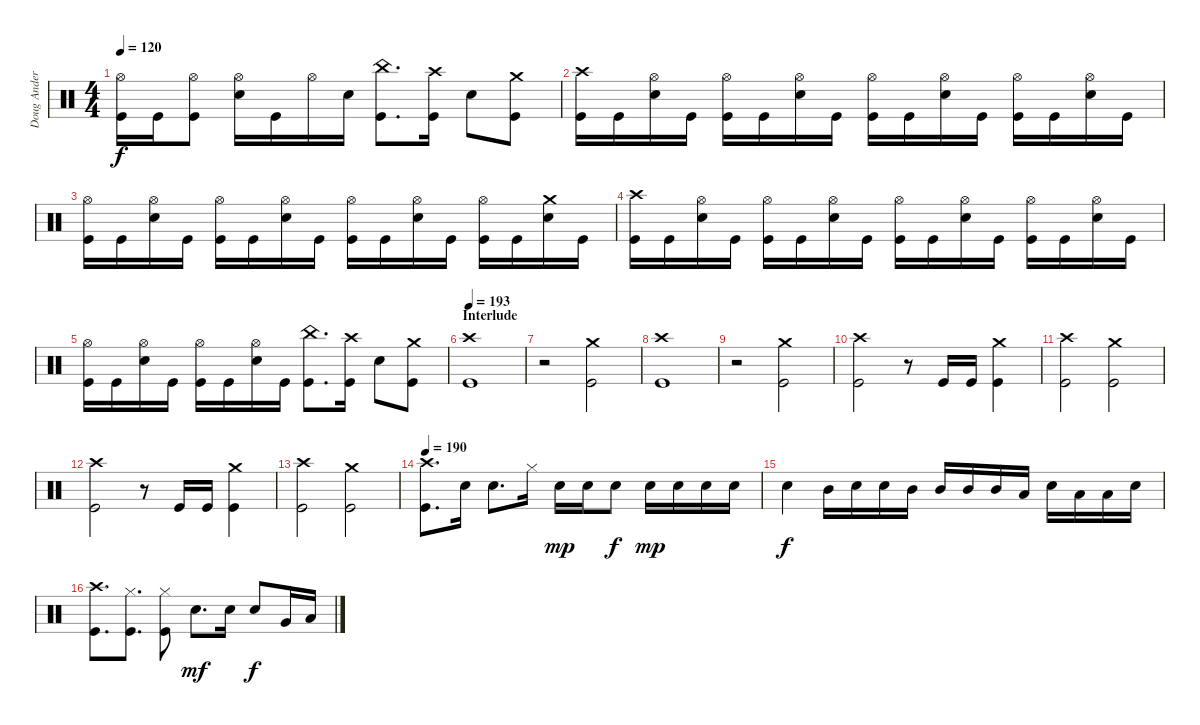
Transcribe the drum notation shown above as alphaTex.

\track ("Doug Anderson" "Doug Ander") {instrument percussion}
\staff {score}
\articulation defaults
\ts (4 4)
\tempo 120
\clef neutral
\ks c
("Kick (hit)" "Hi-Hat (open)").16{dy f} "Kick (hit)".16 ("Kick (hit)" "Hi-Hat (open)").8 ("Snare (hit) 2" "Hi-Hat (open)").16 "Kick (hit)".16 "Hi-Hat (open)".16 "Snare (hit) 2".16 ("Kick (hit)" "China (hit)").8{d} ("Kick (hit)" "Crash high (hit)").16 "Snare (hit) 2".8 ("Kick (hit)" "Crash medium (hit)").8 |
("Kick (hit)" "Crash high (hit)").16 "Kick (hit)".16 ("Snare (hit) 2" "Hi-Hat (open)").16 "Kick (hit)".16 ("Kick (hit)" "Hi-Hat (open)").16 "Kick (hit)".16 ("Snare (hit) 2" "Hi-Hat (open)").16 "Kick (hit)".16 ("Kick (hit)" "Hi-Hat (open)").16 "Kick (hit)".16 ("Snare (hit) 2" "Hi-Hat (open)").16 "Kick (hit)".16 ("Kick (hit)" "Hi-Hat (open)").16 "Kick (hit)".16 ("Snare (hit) 2" "Hi-Hat (open)").16 "Kick (hit)".16 |
("Kick (hit)" "Hi-Hat (open)").16 "Kick (hit)".16 ("Snare (hit) 2" "Hi-Hat (open)").16 "Kick (hit)".16 ("Kick (hit)" "Hi-Hat (open)").16 "Kick (hit)".16 ("Snare (hit) 2" "Hi-Hat (open)").16 "Kick (hit)".16 ("Kick (hit)" "Hi-Hat (open)").16 "Kick (hit)".16 ("Snare (hit) 2" "Hi-Hat (open)").16 "Kick (hit)".16 ("Kick (hit)" "Hi-Hat (open)").16 "Kick (hit)".16 ("Snare (hit) 2" "Crash medium (hit)").16 "Kick (hit)".16 |
("Kick (hit)" "Crash high (hit)").16 "Kick (hit)".16 ("Snare (hit) 2" "Hi-Hat (open)").16 "Kick (hit)".16 ("Kick (hit)" "Hi-Hat (open)").16 "Kick (hit)".16 ("Snare (hit) 2" "Hi-Hat (open)").16 "Kick (hit)".16 ("Kick (hit)" "Hi-Hat (open)").16 "Kick (hit)".16 ("Snare (hit) 2" "Hi-Hat (open)").16 "Kick (hit)".16 ("Kick (hit)" "Hi-Hat (open)").16 "Kick (hit)".16 ("Snare (hit) 2" "Hi-Hat (open)").16 "Kick (hit)".16 |
("Kick (hit)" "Hi-Hat (open)").16 "Kick (hit)".16 ("Snare (hit) 2" "Hi-Hat (open)").16 "Kick (hit)".16 ("Kick (hit)" "Hi-Hat (open)").16 "Kick (hit)".16 ("Snare (hit) 2" "Hi-Hat (open)").16 "Kick (hit)".16 ("Kick (hit)" "China (hit)").8{d} ("Kick (hit)" "Crash high (hit)").16 "Snare (hit) 2".8 ("Kick (hit)" "Crash medium (hit)").8 |
\section ("" "Interlude")
\tempo 193
("Kick (hit)" "Crash high (hit)").1 |
r.2 ("Kick (hit)" "Crash medium (hit)").2 |
("Kick (hit)" "Crash high (hit)").1 |
r.2 ("Kick (hit)" "Crash medium (hit)").2 |
("Kick (hit)" "Crash high (hit)").2 r.8 "Kick (hit)".16 "Kick (hit)".16 ("Kick (hit)" "Crash medium (hit)").4 |
("Kick (hit)" "Crash high (hit)").2 ("Kick (hit)" "Crash medium (hit)").2 |
("Crash high (hit)" "Kick (hit)").2 r.8 "Kick (hit)".16 "Kick (hit)".16 ("Kick (hit)" "Crash medium (hit)").4 |
("Kick (hit)" "Crash high (hit)").2 ("Kick (hit)" "Crash medium (hit)").2 |
\tempo 190
("Kick (hit)" "Crash high (hit)").8{d} "Snare (hit) 2".16 "Snare (hit) 2".8{d} "Hi-Hat (closed)".16 "Snare (hit) 2".16{dy mp} "Snare (hit) 2".16 "Snare (hit) 2".8{dy f} "Snare (hit) 2".16{dy mp} "Snare (hit) 2".16 "Snare (hit) 2".16 "Snare (hit) 2".16 |
"Snare (hit) 2".4{dy f} "Mid Tom (hit)".16 "Snare (hit) 2".16 "Snare (hit) 2".16 "Mid Tom (hit)".16 "Mid Tom (hit)".16 "Mid Tom (hit)".16 "Mid Tom (hit)".16 "Low Tom (hit)".16 "Snare (hit) 2".16 "Low Tom (hit)".16 "Low Tom (hit)".16 "Snare (hit) 2".16 |
("Kick (hit)" "Crash high (hit)").8{d} ("Kick (hit)" "Hi-Hat (closed)").8{d} ("Kick (hit)" "Hi-Hat (closed)").8 "Snare (hit) 2".8{d dy mf} "Snare (hit) 2".16 "Snare (hit) 2".8{dy f} "Very Low Tom (hit)".16 "Low Tom (hit)".16
